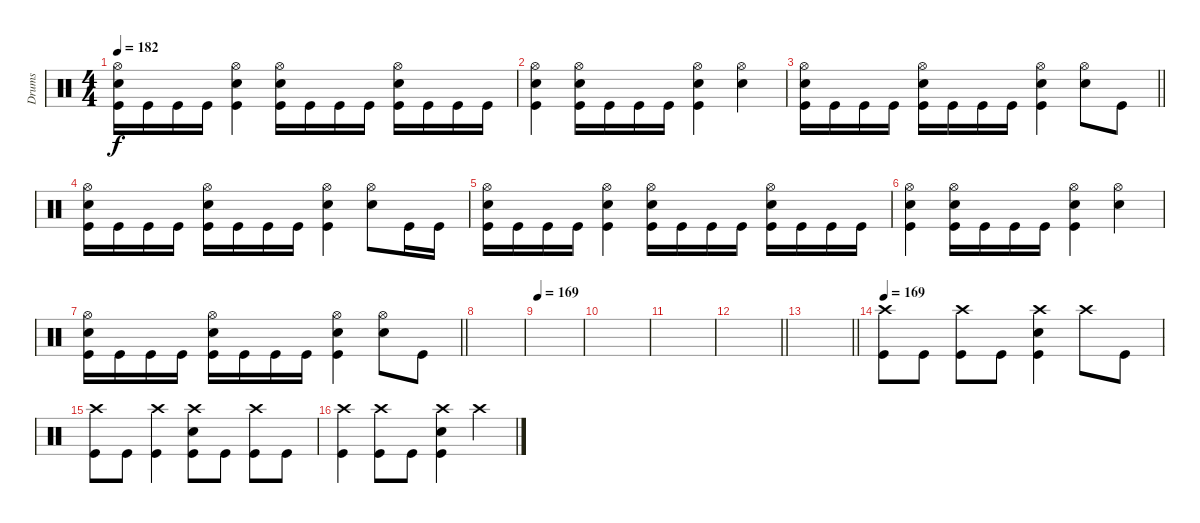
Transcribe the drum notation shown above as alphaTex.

\track ("Drums" "Drums") {instrument percussion}
\staff
\articulation defaults
\ts (4 4)
\tempo 182
\clef neutral
\ks c
("Hi-Hat (open)" "Electric Snare (hit)" "Kick (hit)").16{dy f} "Kick (hit)".16 "Kick (hit)".16 "Kick (hit)".16 ("Hi-Hat (open)" "Electric Snare (hit)" "Kick (hit)").4 ("Hi-Hat (open)" "Electric Snare (hit)" "Kick (hit)").16 "Kick (hit)".16 "Kick (hit)".16 "Kick (hit)".16 ("Hi-Hat (open)" "Electric Snare (hit)" "Kick (hit)").16 "Kick (hit)".16 "Kick (hit)".16 "Kick (hit)".16 |
("Hi-Hat (open)" "Electric Snare (hit)" "Kick (hit)").4 ("Hi-Hat (open)" "Electric Snare (hit)" "Kick (hit)").16 "Kick (hit)".16 "Kick (hit)".16 "Kick (hit)".16 ("Hi-Hat (open)" "Electric Snare (hit)" "Kick (hit)").4 ("Hi-Hat (open)" "Electric Snare (hit)").4 |
\barLineRight lightlight
("Hi-Hat (open)" "Electric Snare (hit)" "Kick (hit)").16 "Kick (hit)".16 "Kick (hit)".16 "Kick (hit)".16 ("Hi-Hat (open)" "Electric Snare (hit)" "Kick (hit)").16 "Kick (hit)".16 "Kick (hit)".16 "Kick (hit)".16 ("Hi-Hat (open)" "Electric Snare (hit)" "Kick (hit)").4 ("Hi-Hat (open)" "Electric Snare (hit)").8 "Kick (hit)".8 |
("Hi-Hat (open)" "Electric Snare (hit)" "Kick (hit)").16 "Kick (hit)".16 "Kick (hit)".16 "Kick (hit)".16 ("Hi-Hat (open)" "Electric Snare (hit)" "Kick (hit)").16 "Kick (hit)".16 "Kick (hit)".16 "Kick (hit)".16 ("Hi-Hat (open)" "Electric Snare (hit)" "Kick (hit)").4 ("Hi-Hat (open)" "Electric Snare (hit)").8 "Kick (hit)".16 "Kick (hit)".16 |
("Hi-Hat (open)" "Electric Snare (hit)" "Kick (hit)").16 "Kick (hit)".16 "Kick (hit)".16 "Kick (hit)".16 ("Hi-Hat (open)" "Electric Snare (hit)" "Kick (hit)").4 ("Hi-Hat (open)" "Electric Snare (hit)" "Kick (hit)").16 "Kick (hit)".16 "Kick (hit)".16 "Kick (hit)".16 ("Hi-Hat (open)" "Electric Snare (hit)" "Kick (hit)").16 "Kick (hit)".16 "Kick (hit)".16 "Kick (hit)".16 |
("Hi-Hat (open)" "Electric Snare (hit)" "Kick (hit)").4 ("Hi-Hat (open)" "Electric Snare (hit)" "Kick (hit)").16 "Kick (hit)".16 "Kick (hit)".16 "Kick (hit)".16 ("Hi-Hat (open)" "Electric Snare (hit)" "Kick (hit)").4 ("Hi-Hat (open)" "Electric Snare (hit)").4 |
\barLineRight lightlight
("Hi-Hat (open)" "Electric Snare (hit)" "Kick (hit)").16 "Kick (hit)".16 "Kick (hit)".16 "Kick (hit)".16 ("Hi-Hat (open)" "Electric Snare (hit)" "Kick (hit)").16 "Kick (hit)".16 "Kick (hit)".16 "Kick (hit)".16 ("Hi-Hat (open)" "Electric Snare (hit)" "Kick (hit)").4 ("Hi-Hat (open)" "Electric Snare (hit)").8 "Kick (hit)".8 |
|
\tempo 169
|
|
|
\barLineRight lightlight
|
\barLineRight lightlight
|
\section ("" "")
\tempo 169
("Crash high (hit)" "Kick (hit)").8 "Kick (hit)".8 ("Crash high (hit)" "Kick (hit)").8 "Kick (hit)".8 ("Crash high (hit)" "Electric Snare (hit)" "Kick (hit)").4 "Crash high (hit)".8 "Kick (hit)".8 |
("Crash high (hit)" "Kick (hit)").8 "Kick (hit)".8 ("Crash high (hit)" "Kick (hit)").4 ("Crash high (hit)" "Electric Snare (hit)" "Kick (hit)").8 "Kick (hit)".8 ("Crash high (hit)" "Kick (hit)").8 "Kick (hit)".8 |
("Crash high (hit)" "Kick (hit)").4 ("Crash high (hit)" "Kick (hit)").8 "Kick (hit)".8 ("Crash high (hit)" "Electric Snare (hit)" "Kick (hit)").4 "Crash high (hit)".4
